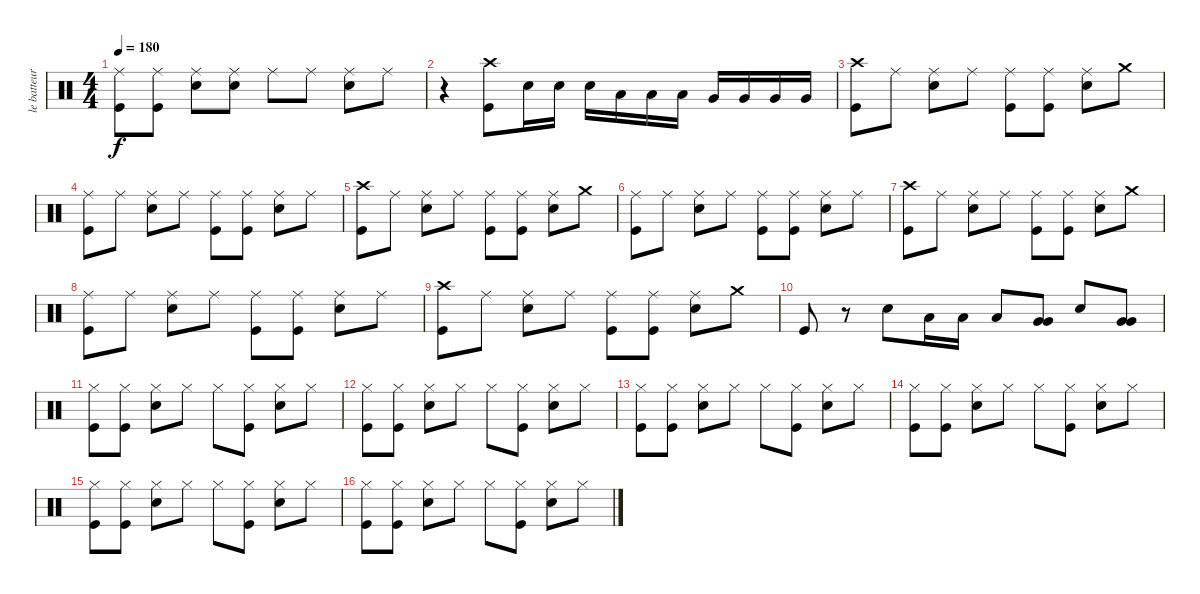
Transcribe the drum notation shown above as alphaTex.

\track ("le batteur" "le batteur") {instrument percussion}
\staff {score}
\articulation defaults
\ts (4 4)
\tempo 180
\clef neutral
\ks c
("Ride (middle)" "Kick (hit)").8{dy f} ("Ride (middle)" "Kick (hit)").8 ("Ride (middle)" "Snare (hit) 2").8 ("Ride (middle)" "Snare (hit) 2").8 "Ride (middle)".8 "Ride (middle)".8 ("Ride (middle)" "Snare (hit) 2").8 "Ride (middle)".8 |
r.4 ("Crash high (hit)" "Kick (hit)").8 "Snare (hit) 2".16 "Snare (hit) 2".16 "Snare (hit) 2".16 "Low Tom (hit)".16 "Low Tom (hit)".16 "Low Tom (hit)".16 "Very Low Tom (hit)".16 "Very Low Tom (hit)".16 "Very Low Tom (hit)".16 "Very Low Tom (hit)".16 |
("Crash high (hit)" "Kick (hit)").8 "Ride (middle)".8 ("Ride (middle)" "Snare (hit) 2").8 "Ride (middle)".8 ("Ride (middle)" "Kick (hit)").8 ("Ride (middle)" "Kick (hit)").8 ("Ride (middle)" "Snare (hit) 2").8 "Crash medium (hit)".8 |
("Ride (middle)" "Kick (hit)").8 "Ride (middle)".8 ("Ride (middle)" "Snare (hit) 2").8 "Ride (middle)".8 ("Ride (middle)" "Kick (hit)").8 ("Ride (middle)" "Kick (hit)").8 ("Ride (middle)" "Snare (hit) 2").8 "Ride (middle)".8 |
("Crash high (hit)" "Kick (hit)").8 "Ride (middle)".8 ("Ride (middle)" "Snare (hit) 2").8 "Ride (middle)".8 ("Ride (middle)" "Kick (hit)").8 ("Ride (middle)" "Kick (hit)").8 ("Ride (middle)" "Snare (hit) 2").8 "Crash medium (hit)".8 |
("Ride (middle)" "Kick (hit)").8 "Ride (middle)".8 ("Ride (middle)" "Snare (hit) 2").8 "Ride (middle)".8 ("Ride (middle)" "Kick (hit)").8 ("Ride (middle)" "Kick (hit)").8 ("Ride (middle)" "Snare (hit) 2").8 "Ride (middle)".8 |
("Crash high (hit)" "Kick (hit)").8 "Ride (middle)".8 ("Ride (middle)" "Snare (hit) 2").8 "Ride (middle)".8 ("Ride (middle)" "Kick (hit)").8 ("Ride (middle)" "Kick (hit)").8 ("Ride (middle)" "Snare (hit) 2").8 "Crash medium (hit)".8 |
("Ride (middle)" "Kick (hit)").8 "Ride (middle)".8 ("Ride (middle)" "Snare (hit) 2").8 "Ride (middle)".8 ("Ride (middle)" "Kick (hit)").8 ("Ride (middle)" "Kick (hit)").8 ("Ride (middle)" "Snare (hit) 2").8 "Ride (middle)".8 |
("Crash high (hit)" "Kick (hit)").8 "Ride (middle)".8 ("Ride (middle)" "Snare (hit) 2").8 "Ride (middle)".8 ("Ride (middle)" "Kick (hit)").8 ("Ride (middle)" "Kick (hit)").8 ("Ride (middle)" "Snare (hit) 2").8 "Crash medium (hit)".8 |
"Kick (hit)".8 r.8 "Snare (hit) 2".8 "Low Tom (hit)".16 "Low Tom (hit)".16 "Low Tom (hit)".8 ("Very Low Tom (hit)" "Very Low Tom (hit)").8 "Snare (hit) 2".8 ("Very Low Tom (hit)" "Very Low Tom (hit)").8 |
("Hi-Hat (closed)" "Kick (hit)").8 ("Hi-Hat (closed)" "Kick (hit)").8 ("Hi-Hat (closed)" "Snare (hit) 2").8 "Hi-Hat (closed)".8 "Hi-Hat (closed)".8 ("Hi-Hat (closed)" "Kick (hit)").8 ("Hi-Hat (closed)" "Snare (hit) 2").8 "Hi-Hat (closed)".8 |
("Hi-Hat (closed)" "Kick (hit)").8 ("Hi-Hat (closed)" "Kick (hit)").8 ("Hi-Hat (closed)" "Snare (hit) 2").8 "Hi-Hat (closed)".8 "Hi-Hat (closed)".8 ("Hi-Hat (closed)" "Kick (hit)").8 ("Hi-Hat (closed)" "Snare (hit) 2").8 "Hi-Hat (closed)".8 |
("Hi-Hat (closed)" "Kick (hit)").8 ("Hi-Hat (closed)" "Kick (hit)").8 ("Hi-Hat (closed)" "Snare (hit) 2").8 "Hi-Hat (closed)".8 "Hi-Hat (closed)".8 ("Hi-Hat (closed)" "Kick (hit)").8 ("Hi-Hat (closed)" "Snare (hit) 2").8 "Hi-Hat (closed)".8 |
("Hi-Hat (closed)" "Kick (hit)").8 ("Hi-Hat (closed)" "Kick (hit)").8 ("Hi-Hat (closed)" "Snare (hit) 2").8 "Hi-Hat (closed)".8 "Hi-Hat (closed)".8 ("Hi-Hat (closed)" "Kick (hit)").8 ("Hi-Hat (closed)" "Snare (hit) 2").8 "Hi-Hat (closed)".8 |
("Hi-Hat (closed)" "Kick (hit)").8 ("Hi-Hat (closed)" "Kick (hit)").8 ("Hi-Hat (closed)" "Snare (hit) 2").8 "Hi-Hat (closed)".8 "Hi-Hat (closed)".8 ("Hi-Hat (closed)" "Kick (hit)").8 ("Hi-Hat (closed)" "Snare (hit) 2").8 "Hi-Hat (closed)".8 |
("Hi-Hat (closed)" "Kick (hit)").8 ("Hi-Hat (closed)" "Kick (hit)").8 ("Hi-Hat (closed)" "Snare (hit) 2").8 "Hi-Hat (closed)".8 "Hi-Hat (closed)".8 ("Hi-Hat (closed)" "Kick (hit)").8 ("Hi-Hat (closed)" "Snare (hit) 2").8 "Hi-Hat (closed)".8
